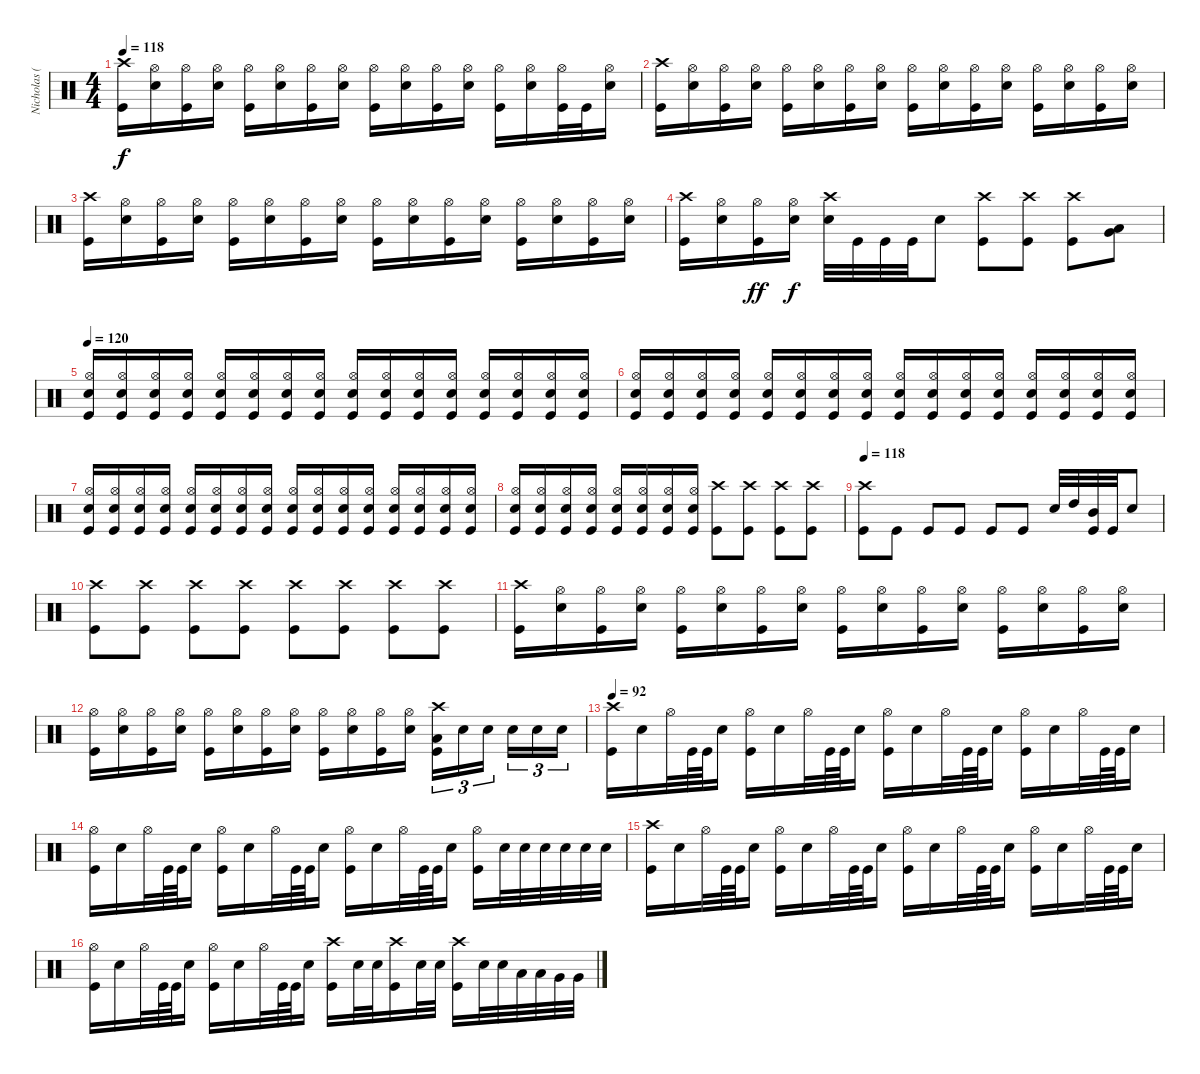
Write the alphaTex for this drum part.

\track ("Nicholas (Drums)" "Nicholas (") {instrument percussion}
\staff {score}
\articulation defaults
\ts (4 4)
\tempo 118
\clef neutral
\ks c
("Crash high (hit)" "Kick (hit)").16{dy f} ("Hi-Hat (open)" "Electric Snare (hit)").16 ("Hi-Hat (open)" "Kick (hit)").16 ("Hi-Hat (open)" "Electric Snare (hit)").16 ("Hi-Hat (open)" "Kick (hit)").16 ("Hi-Hat (open)" "Electric Snare (hit)").16 ("Hi-Hat (open)" "Kick (hit)").16 ("Hi-Hat (open)" "Electric Snare (hit)").16 ("Hi-Hat (open)" "Kick (hit)").16 ("Hi-Hat (open)" "Electric Snare (hit)").16 ("Hi-Hat (open)" "Kick (hit)").16 ("Hi-Hat (open)" "Electric Snare (hit)").16 ("Hi-Hat (open)" "Kick (hit)").16 ("Hi-Hat (open)" "Electric Snare (hit)").16 ("Hi-Hat (open)" "Kick (hit)").32 "Kick (hit)".32 ("Hi-Hat (open)" "Electric Snare (hit)").16 |
("Crash high (hit)" "Kick (hit)").16 ("Hi-Hat (open)" "Electric Snare (hit)").16 ("Hi-Hat (open)" "Kick (hit)").16 ("Hi-Hat (open)" "Electric Snare (hit)").16 ("Hi-Hat (open)" "Kick (hit)").16 ("Hi-Hat (open)" "Electric Snare (hit)").16 ("Hi-Hat (open)" "Kick (hit)").16 ("Hi-Hat (open)" "Electric Snare (hit)").16 ("Hi-Hat (open)" "Kick (hit)").16 ("Hi-Hat (open)" "Electric Snare (hit)").16 ("Hi-Hat (open)" "Kick (hit)").16 ("Hi-Hat (open)" "Electric Snare (hit)").16 ("Hi-Hat (open)" "Kick (hit)").16 ("Hi-Hat (open)" "Electric Snare (hit)").16 ("Hi-Hat (open)" "Kick (hit)").16 ("Hi-Hat (open)" "Electric Snare (hit)").16 |
("Crash high (hit)" "Kick (hit)").16 ("Hi-Hat (open)" "Electric Snare (hit)").16 ("Hi-Hat (open)" "Kick (hit)").16 ("Hi-Hat (open)" "Electric Snare (hit)").16 ("Hi-Hat (open)" "Kick (hit)").16 ("Hi-Hat (open)" "Electric Snare (hit)").16 ("Hi-Hat (open)" "Kick (hit)").16 ("Hi-Hat (open)" "Electric Snare (hit)").16 ("Hi-Hat (open)" "Kick (hit)").16 ("Hi-Hat (open)" "Electric Snare (hit)").16 ("Hi-Hat (open)" "Kick (hit)").16 ("Hi-Hat (open)" "Electric Snare (hit)").16 ("Hi-Hat (open)" "Kick (hit)").16 ("Hi-Hat (open)" "Electric Snare (hit)").16 ("Hi-Hat (open)" "Kick (hit)").16 ("Hi-Hat (open)" "Electric Snare (hit)").16 |
("Crash high (hit)" "Kick (hit)").16 ("Hi-Hat (open)" "Electric Snare (hit)").16 ("Hi-Hat (open)" "Kick (hit)").16{dy ff} ("Hi-Hat (open)" "Electric Snare (hit)").16{dy f} ("Crash high (hit)" "Electric Snare (hit)").32 "Kick (hit)".32 "Kick (hit)".32 "Kick (hit)".32 "Electric Snare (hit)".8 ("Crash high (hit)" "Kick (hit)").8 ("Crash high (hit)" "Kick (hit)").8 ("Crash high (hit)" "Kick (hit)").8 ("Low Tom (hit)" "Very Low Tom (hit)").8{bu 60} |
\tempo 120
("Hi-Hat (open)" "Electric Snare (hit)" "Kick (hit)").16 ("Hi-Hat (open)" "Electric Snare (hit)" "Kick (hit)").16 ("Hi-Hat (open)" "Electric Snare (hit)" "Kick (hit)").16 ("Hi-Hat (open)" "Electric Snare (hit)" "Kick (hit)").16 ("Hi-Hat (open)" "Electric Snare (hit)" "Kick (hit)").16 ("Hi-Hat (open)" "Electric Snare (hit)" "Kick (hit)").16 ("Hi-Hat (open)" "Electric Snare (hit)" "Kick (hit)").16 ("Hi-Hat (open)" "Electric Snare (hit)" "Kick (hit)").16 ("Hi-Hat (open)" "Electric Snare (hit)" "Kick (hit)").16 ("Hi-Hat (open)" "Electric Snare (hit)" "Kick (hit)").16 ("Hi-Hat (open)" "Electric Snare (hit)" "Kick (hit)").16 ("Hi-Hat (open)" "Electric Snare (hit)" "Kick (hit)").16 ("Hi-Hat (open)" "Electric Snare (hit)" "Kick (hit)").16 ("Hi-Hat (open)" "Electric Snare (hit)" "Kick (hit)").16 ("Hi-Hat (open)" "Electric Snare (hit)" "Kick (hit)").16 ("Hi-Hat (open)" "Electric Snare (hit)" "Kick (hit)").16 |
("Hi-Hat (open)" "Electric Snare (hit)" "Kick (hit)").16 ("Hi-Hat (open)" "Electric Snare (hit)" "Kick (hit)").16 ("Hi-Hat (open)" "Electric Snare (hit)" "Kick (hit)").16 ("Hi-Hat (open)" "Electric Snare (hit)" "Kick (hit)").16 ("Hi-Hat (open)" "Electric Snare (hit)" "Kick (hit)").16 ("Hi-Hat (open)" "Electric Snare (hit)" "Kick (hit)").16 ("Hi-Hat (open)" "Electric Snare (hit)" "Kick (hit)").16 ("Hi-Hat (open)" "Electric Snare (hit)" "Kick (hit)").16 ("Hi-Hat (open)" "Electric Snare (hit)" "Kick (hit)").16 ("Hi-Hat (open)" "Electric Snare (hit)" "Kick (hit)").16 ("Hi-Hat (open)" "Electric Snare (hit)" "Kick (hit)").16 ("Hi-Hat (open)" "Electric Snare (hit)" "Kick (hit)").16 ("Hi-Hat (open)" "Electric Snare (hit)" "Kick (hit)").16 ("Hi-Hat (open)" "Electric Snare (hit)" "Kick (hit)").16 ("Hi-Hat (open)" "Electric Snare (hit)" "Kick (hit)").16 ("Hi-Hat (open)" "Electric Snare (hit)" "Kick (hit)").16 |
("Hi-Hat (open)" "Electric Snare (hit)" "Kick (hit)").16 ("Hi-Hat (open)" "Electric Snare (hit)" "Kick (hit)").16 ("Hi-Hat (open)" "Electric Snare (hit)" "Kick (hit)").16 ("Hi-Hat (open)" "Electric Snare (hit)" "Kick (hit)").16 ("Hi-Hat (open)" "Electric Snare (hit)" "Kick (hit)").16 ("Hi-Hat (open)" "Electric Snare (hit)" "Kick (hit)").16 ("Hi-Hat (open)" "Electric Snare (hit)" "Kick (hit)").16 ("Hi-Hat (open)" "Electric Snare (hit)" "Kick (hit)").16 ("Hi-Hat (open)" "Electric Snare (hit)" "Kick (hit)").16 ("Hi-Hat (open)" "Electric Snare (hit)" "Kick (hit)").16 ("Hi-Hat (open)" "Electric Snare (hit)" "Kick (hit)").16 ("Hi-Hat (open)" "Electric Snare (hit)" "Kick (hit)").16 ("Hi-Hat (open)" "Electric Snare (hit)" "Kick (hit)").16 ("Hi-Hat (open)" "Electric Snare (hit)" "Kick (hit)").16 ("Hi-Hat (open)" "Electric Snare (hit)" "Kick (hit)").16 ("Hi-Hat (open)" "Electric Snare (hit)" "Kick (hit)").16 |
("Hi-Hat (open)" "Electric Snare (hit)" "Kick (hit)").16 ("Hi-Hat (open)" "Electric Snare (hit)" "Kick (hit)").16 ("Hi-Hat (open)" "Electric Snare (hit)" "Kick (hit)").16 ("Hi-Hat (open)" "Electric Snare (hit)" "Kick (hit)").16 ("Hi-Hat (open)" "Electric Snare (hit)" "Kick (hit)").16 ("Hi-Hat (open)" "Electric Snare (hit)" "Kick (hit)").16 ("Hi-Hat (open)" "Electric Snare (hit)" "Kick (hit)").16 ("Hi-Hat (open)" "Electric Snare (hit)" "Kick (hit)").16 ("Crash high (hit)" "Kick (hit)").8 ("Crash high (hit)" "Kick (hit)").8 ("Crash high (hit)" "Kick (hit)").8 ("Crash high (hit)" "Kick (hit)").8 |
\tempo 118
("Crash high (hit)" "Kick (hit)").8 "Kick (hit)".8 "Kick (hit)".8 "Kick (hit)".8 "Kick (hit)".8 "Kick (hit)".8 "Electric Snare (hit)".32 "High Tom (hit)".32 ("Mid Tom (hit)" "Kick (hit)").32 "Kick (hit)".32 "Electric Snare (hit)".8 |
("Crash high (hit)" "Kick (hit)").8 ("Crash high (hit)" "Kick (hit)").8 ("Crash high (hit)" "Kick (hit)").8 ("Crash high (hit)" "Kick (hit)").8 ("Crash high (hit)" "Kick (hit)").8 ("Crash high (hit)" "Kick (hit)").8 ("Crash high (hit)" "Kick (hit)").8 ("Crash high (hit)" "Kick (hit)").8 |
("Crash high (hit)" "Kick (hit)").16 ("Hi-Hat (open)" "Electric Snare (hit)").16 ("Hi-Hat (open)" "Kick (hit)").16 ("Hi-Hat (open)" "Electric Snare (hit)").16 ("Hi-Hat (open)" "Kick (hit)").16 ("Hi-Hat (open)" "Electric Snare (hit)").16 ("Hi-Hat (open)" "Kick (hit)").16 ("Hi-Hat (open)" "Electric Snare (hit)").16 ("Hi-Hat (open)" "Kick (hit)").16 ("Hi-Hat (open)" "Electric Snare (hit)").16 ("Hi-Hat (open)" "Kick (hit)").16 ("Hi-Hat (open)" "Electric Snare (hit)").16 ("Hi-Hat (open)" "Kick (hit)").16 ("Hi-Hat (open)" "Electric Snare (hit)").16 ("Hi-Hat (open)" "Kick (hit)").16 ("Hi-Hat (open)" "Electric Snare (hit)").16 |
("Hi-Hat (open)" "Kick (hit)").16 ("Hi-Hat (open)" "Electric Snare (hit)").16 ("Hi-Hat (open)" "Kick (hit)").16 ("Hi-Hat (open)" "Electric Snare (hit)").16 ("Hi-Hat (open)" "Kick (hit)").16 ("Hi-Hat (open)" "Electric Snare (hit)").16 ("Hi-Hat (open)" "Kick (hit)").16 ("Hi-Hat (open)" "Electric Snare (hit)").16 ("Hi-Hat (open)" "Kick (hit)").16 ("Hi-Hat (open)" "Electric Snare (hit)").16 ("Hi-Hat (open)" "Kick (hit)").16 ("Hi-Hat (open)" "Electric Snare (hit)").16 ("Crash high (hit)" "Low Tom (hit)" "Kick (hit)").16{tu (3 2)} "Electric Snare (hit)".16{tu (3 2)} "Electric Snare (hit)".16{tu (3 2)} "Electric Snare (hit)".16{tu (3 2)} "Electric Snare (hit)".16{tu (3 2)} "Electric Snare (hit)".16{tu (3 2)} |
\tempo 92
("Crash high (hit)" "Kick (hit)").16 "Electric Snare (hit)".16 "Hi-Hat (open)".32 "Kick (hit)".64 "Kick (hit)".64 "Electric Snare (hit)".16 ("Hi-Hat (open)" "Kick (hit)").16 "Electric Snare (hit)".16 "Hi-Hat (open)".32 "Kick (hit)".64 "Kick (hit)".64 "Electric Snare (hit)".16 ("Hi-Hat (open)" "Kick (hit)").16 "Electric Snare (hit)".16 "Hi-Hat (open)".32 "Kick (hit)".64 "Kick (hit)".64 "Electric Snare (hit)".16 ("Hi-Hat (open)" "Kick (hit)").16 "Electric Snare (hit)".16 "Hi-Hat (open)".32 "Kick (hit)".64 "Kick (hit)".64 "Electric Snare (hit)".16 |
("Hi-Hat (open)" "Kick (hit)").16 "Electric Snare (hit)".16 "Hi-Hat (open)".32 "Kick (hit)".64 "Kick (hit)".64 "Electric Snare (hit)".16 ("Hi-Hat (open)" "Kick (hit)").16 "Electric Snare (hit)".16 "Hi-Hat (open)".32 "Kick (hit)".64 "Kick (hit)".64 "Electric Snare (hit)".16 ("Hi-Hat (open)" "Kick (hit)").16 "Electric Snare (hit)".16 "Hi-Hat (open)".32 "Kick (hit)".64 "Kick (hit)".64 "Electric Snare (hit)".16 ("Hi-Hat (open)" "Kick (hit)").16 "Electric Snare (hit)".32 "Electric Snare (hit)".32 "Electric Snare (hit)".32 "Electric Snare (hit)".32 "Electric Snare (hit)".32 "Electric Snare (hit)".32 |
("Crash high (hit)" "Kick (hit)").16 "Electric Snare (hit)".16 "Hi-Hat (open)".32 "Kick (hit)".64 "Kick (hit)".64 "Electric Snare (hit)".16 ("Hi-Hat (open)" "Kick (hit)").16 "Electric Snare (hit)".16 "Hi-Hat (open)".32 "Kick (hit)".64 "Kick (hit)".64 "Electric Snare (hit)".16 ("Hi-Hat (open)" "Kick (hit)").16 "Electric Snare (hit)".16 "Hi-Hat (open)".32 "Kick (hit)".64 "Kick (hit)".64 "Electric Snare (hit)".16 ("Hi-Hat (open)" "Kick (hit)").16 "Electric Snare (hit)".16 "Hi-Hat (open)".32 "Kick (hit)".64 "Kick (hit)".64 "Electric Snare (hit)".16 |
("Hi-Hat (open)" "Kick (hit)").16 "Electric Snare (hit)".16 "Hi-Hat (open)".32 "Kick (hit)".64 "Kick (hit)".64 "Electric Snare (hit)".16 ("Hi-Hat (open)" "Kick (hit)").16 "Electric Snare (hit)".16 "Hi-Hat (open)".32 "Kick (hit)".64 "Kick (hit)".64 "Electric Snare (hit)".16 ("Crash high (hit)" "Kick (hit)").16 "Electric Snare (hit)".32 "Electric Snare (hit)".32 ("Crash high (hit)" "Kick (hit)").16 "Electric Snare (hit)".32 "Electric Snare (hit)".32 ("Crash high (hit)" "Kick (hit)").16 "Electric Snare (hit)".32 "Electric Snare (hit)".32 "Low Tom (hit)".32 "Low Tom (hit)".32 "Very Low Tom (hit)".32 "Very Low Tom (hit)".32
